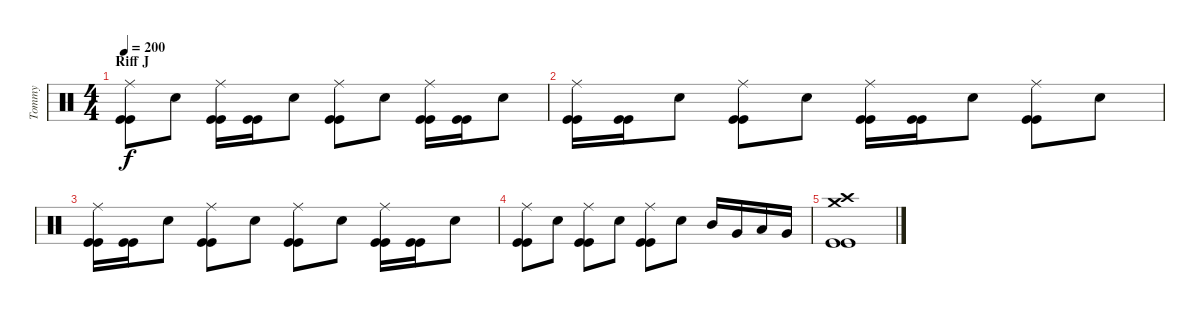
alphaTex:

\track ("Tommy" "Tommy") {instrument percussion}
\staff {score}
\articulation defaults
\ts (4 4)
\section ("" "Riff J")
\tempo 200
\clef neutral
\ks c
("Ride (middle)" "Kick (hit)" "Kick (hit)").8{dy f} "Snare (hit) 2".8 ("Ride (middle)" "Kick (hit)" "Kick (hit)").16 ("Kick (hit)" "Kick (hit)").16 "Snare (hit) 2".8 ("Ride (middle)" "Kick (hit)" "Kick (hit)").8 "Snare (hit) 2".8 ("Ride (middle)" "Kick (hit)" "Kick (hit)").16 ("Kick (hit)" "Kick (hit)").16 "Snare (hit) 2".8 |
("Ride (middle)" "Kick (hit)" "Kick (hit)").16 ("Kick (hit)" "Kick (hit)").16 "Snare (hit) 2".8 ("Ride (middle)" "Kick (hit)" "Kick (hit)").8 "Snare (hit) 2".8 ("Ride (middle)" "Kick (hit)" "Kick (hit)").16 ("Kick (hit)" "Kick (hit)").16 "Snare (hit) 2".8 ("Ride (middle)" "Kick (hit)" "Kick (hit)").8 "Snare (hit) 2".8 |
("Ride (middle)" "Kick (hit)" "Kick (hit)").16 ("Kick (hit)" "Kick (hit)").16 "Snare (hit) 2".8 ("Ride (middle)" "Kick (hit)" "Kick (hit)").8 "Snare (hit) 2".8 ("Ride (middle)" "Kick (hit)" "Kick (hit)").8 "Snare (hit) 2".8 ("Ride (middle)" "Kick (hit)" "Kick (hit)").16 ("Kick (hit)" "Kick (hit)").16 "Snare (hit) 2".8 |
("Ride (middle)" "Kick (hit)" "Kick (hit)").8 "Snare (hit) 2".8 ("Ride (middle)" "Kick (hit)" "Kick (hit)").8 "Snare (hit) 2".8 ("Ride (middle)" "Kick (hit)" "Kick (hit)").8 "Snare (hit) 2".8 "Mid Tom (hit)".16 "Very Low Tom (hit)".16 "Low Tom (hit)".16 "Very Low Tom (hit)".16 |
("Crash high (hit)" "Crash medium (hit)" "Kick (hit)" "Kick (hit)").1
